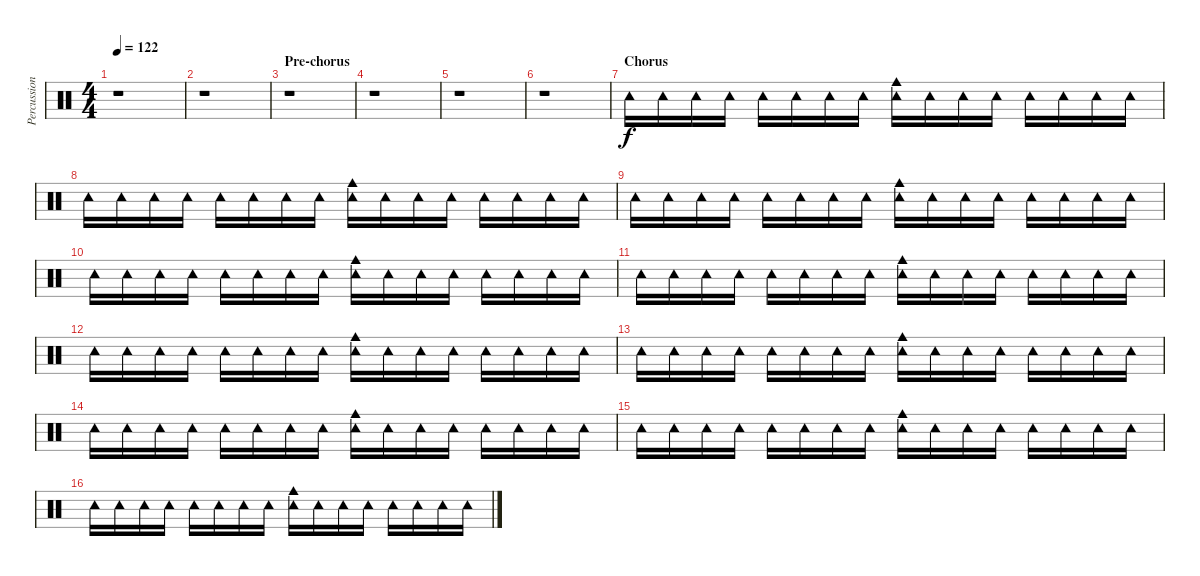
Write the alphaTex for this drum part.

\track ("Percussion" "Percussion") {instrument percussion}
\staff {score}
\articulation defaults
\ts (4 4)
\tempo 122
\clef neutral
\ks c
r.1{dy f} |
r.1 |
\section ("" "Pre-chorus")
r.1 |
r.1 |
r.1 |
r.1 |
\section ("" "Chorus")
"Tambourine (hit)".16 "Tambourine (hit)".16 "Tambourine (hit)".16 "Tambourine (hit)".16 "Tambourine (hit)".16 "Tambourine (hit)".16 "Tambourine (hit)".16 "Tambourine (hit)".16 ("Tambourine (hit)" "Cowbell medium (hit)").16 "Tambourine (hit)".16 "Tambourine (hit)".16 "Tambourine (hit)".16 "Tambourine (hit)".16 "Tambourine (hit)".16 "Tambourine (hit)".16 "Tambourine (hit)".16 |
"Tambourine (hit)".16 "Tambourine (hit)".16 "Tambourine (hit)".16 "Tambourine (hit)".16 "Tambourine (hit)".16 "Tambourine (hit)".16 "Tambourine (hit)".16 "Tambourine (hit)".16 ("Tambourine (hit)" "Cowbell medium (hit)").16 "Tambourine (hit)".16 "Tambourine (hit)".16 "Tambourine (hit)".16 "Tambourine (hit)".16 "Tambourine (hit)".16 "Tambourine (hit)".16 "Tambourine (hit)".16 |
"Tambourine (hit)".16 "Tambourine (hit)".16 "Tambourine (hit)".16 "Tambourine (hit)".16 "Tambourine (hit)".16 "Tambourine (hit)".16 "Tambourine (hit)".16 "Tambourine (hit)".16 ("Tambourine (hit)" "Cowbell medium (hit)").16 "Tambourine (hit)".16 "Tambourine (hit)".16 "Tambourine (hit)".16 "Tambourine (hit)".16 "Tambourine (hit)".16 "Tambourine (hit)".16 "Tambourine (hit)".16 |
"Tambourine (hit)".16 "Tambourine (hit)".16 "Tambourine (hit)".16 "Tambourine (hit)".16 "Tambourine (hit)".16 "Tambourine (hit)".16 "Tambourine (hit)".16 "Tambourine (hit)".16 ("Tambourine (hit)" "Cowbell medium (hit)").16 "Tambourine (hit)".16 "Tambourine (hit)".16 "Tambourine (hit)".16 "Tambourine (hit)".16 "Tambourine (hit)".16 "Tambourine (hit)".16 "Tambourine (hit)".16 |
"Tambourine (hit)".16 "Tambourine (hit)".16 "Tambourine (hit)".16 "Tambourine (hit)".16 "Tambourine (hit)".16 "Tambourine (hit)".16 "Tambourine (hit)".16 "Tambourine (hit)".16 ("Tambourine (hit)" "Cowbell medium (hit)").16 "Tambourine (hit)".16 "Tambourine (hit)".16 "Tambourine (hit)".16 "Tambourine (hit)".16 "Tambourine (hit)".16 "Tambourine (hit)".16 "Tambourine (hit)".16 |
"Tambourine (hit)".16 "Tambourine (hit)".16 "Tambourine (hit)".16 "Tambourine (hit)".16 "Tambourine (hit)".16 "Tambourine (hit)".16 "Tambourine (hit)".16 "Tambourine (hit)".16 ("Tambourine (hit)" "Cowbell medium (hit)").16 "Tambourine (hit)".16 "Tambourine (hit)".16 "Tambourine (hit)".16 "Tambourine (hit)".16 "Tambourine (hit)".16 "Tambourine (hit)".16 "Tambourine (hit)".16 |
"Tambourine (hit)".16 "Tambourine (hit)".16 "Tambourine (hit)".16 "Tambourine (hit)".16 "Tambourine (hit)".16 "Tambourine (hit)".16 "Tambourine (hit)".16 "Tambourine (hit)".16 ("Tambourine (hit)" "Cowbell medium (hit)").16 "Tambourine (hit)".16 "Tambourine (hit)".16 "Tambourine (hit)".16 "Tambourine (hit)".16 "Tambourine (hit)".16 "Tambourine (hit)".16 "Tambourine (hit)".16 |
"Tambourine (hit)".16 "Tambourine (hit)".16 "Tambourine (hit)".16 "Tambourine (hit)".16 "Tambourine (hit)".16 "Tambourine (hit)".16 "Tambourine (hit)".16 "Tambourine (hit)".16 ("Tambourine (hit)" "Cowbell medium (hit)").16 "Tambourine (hit)".16 "Tambourine (hit)".16 "Tambourine (hit)".16 "Tambourine (hit)".16 "Tambourine (hit)".16 "Tambourine (hit)".16 "Tambourine (hit)".16 |
"Tambourine (hit)".16 "Tambourine (hit)".16 "Tambourine (hit)".16 "Tambourine (hit)".16 "Tambourine (hit)".16 "Tambourine (hit)".16 "Tambourine (hit)".16 "Tambourine (hit)".16 ("Tambourine (hit)" "Cowbell medium (hit)").16 "Tambourine (hit)".16 "Tambourine (hit)".16 "Tambourine (hit)".16 "Tambourine (hit)".16 "Tambourine (hit)".16 "Tambourine (hit)".16 "Tambourine (hit)".16 |
"Tambourine (hit)".16 "Tambourine (hit)".16 "Tambourine (hit)".16 "Tambourine (hit)".16 "Tambourine (hit)".16 "Tambourine (hit)".16 "Tambourine (hit)".16 "Tambourine (hit)".16 ("Tambourine (hit)" "Cowbell medium (hit)").16 "Tambourine (hit)".16 "Tambourine (hit)".16 "Tambourine (hit)".16 "Tambourine (hit)".16 "Tambourine (hit)".16 "Tambourine (hit)".16 "Tambourine (hit)".16
